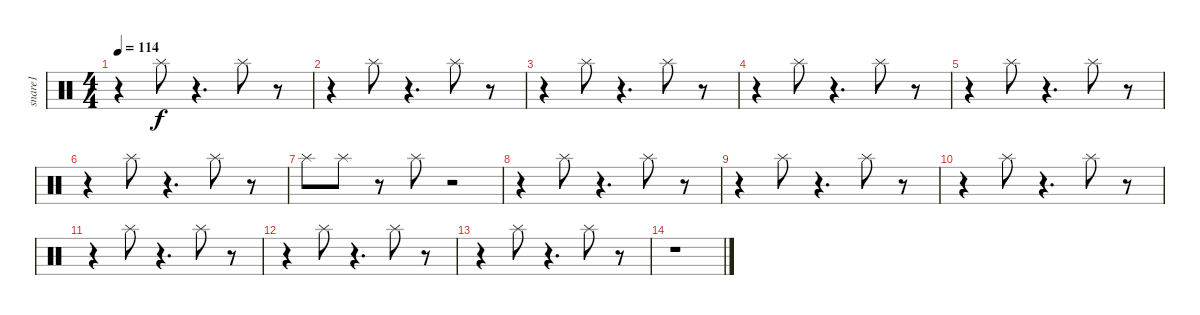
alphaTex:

\track ("snare1              " "snare1    ") {instrument percussion}
\staff {score}
\articulation defaults
\ts (4 4)
\tempo 114
\clef neutral
\ks c
r.4{dy f} "Splash (hit)".8 r.4{d} "Splash (hit)".8 r.8 |
r.4 "Splash (hit)".8 r.4{d} "Splash (hit)".8 r.8 |
r.4 "Splash (hit)".8 r.4{d} "Splash (hit)".8 r.8 |
r.4 "Splash (hit)".8 r.4{d} "Splash (hit)".8 r.8 |
r.4 "Splash (hit)".8 r.4{d} "Splash (hit)".8 r.8 |
r.4 "Splash (hit)".8 r.4{d} "Splash (hit)".8 r.8 |
"Splash (hit)".8 "Splash (hit)".8 r.8 "Splash (hit)".8 r.2 |
r.4 "Splash (hit)".8 r.4{d} "Splash (hit)".8 r.8 |
r.4 "Splash (hit)".8 r.4{d} "Splash (hit)".8 r.8 |
r.4 "Splash (hit)".8 r.4{d} "Splash (hit)".8 r.8 |
r.4 "Splash (hit)".8 r.4{d} "Splash (hit)".8 r.8 |
r.4 "Splash (hit)".8 r.4{d} "Splash (hit)".8 r.8 |
r.4 "Splash (hit)".8 r.4{d} "Splash (hit)".8 r.8 |
r.1
